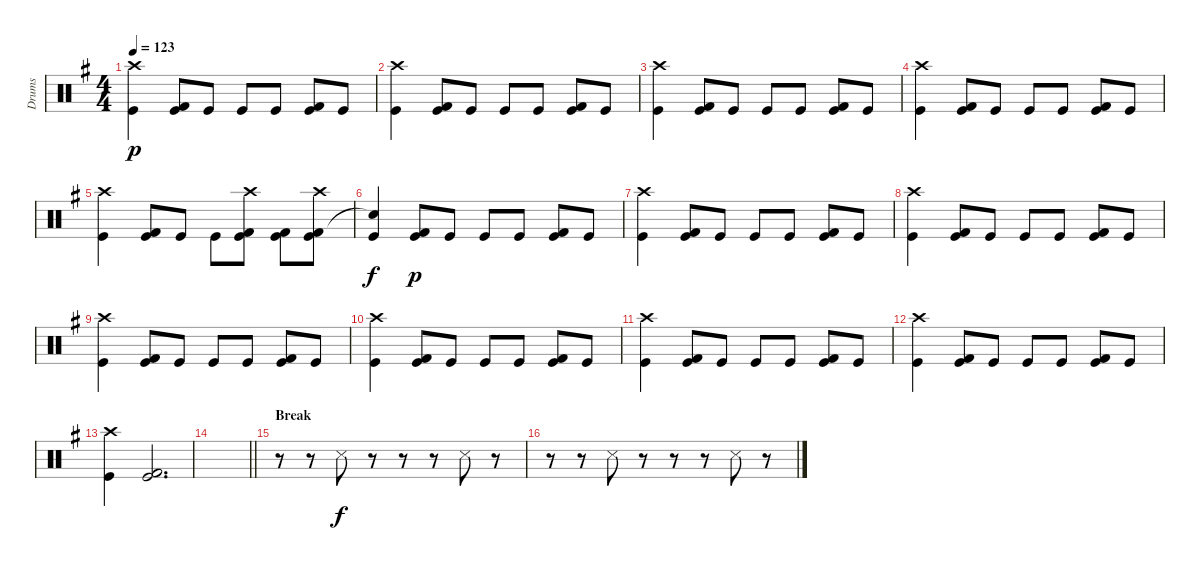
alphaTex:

\track ("Drums" "Drums") {instrument percussion}
\staff {score}
\articulation defaults
\ts (4 4)
\tempo 123
\clef neutral
\ks g
("Crash high (hit)" "Kick (hit)").4{dy p} ("Kick (hit) 2" "Kick (hit)").8 "Kick (hit)".8 "Kick (hit)".8 "Kick (hit)".8 ("Kick (hit) 2" "Kick (hit)").8 "Kick (hit)".8 |
("Crash high (hit)" "Kick (hit)").4 ("Kick (hit) 2" "Kick (hit)").8 "Kick (hit)".8 "Kick (hit)".8 "Kick (hit)".8 ("Kick (hit) 2" "Kick (hit)").8 "Kick (hit)".8 |
("Crash high (hit)" "Kick (hit)").4 ("Kick (hit) 2" "Kick (hit)").8 "Kick (hit)".8 "Kick (hit)".8 "Kick (hit)".8 ("Kick (hit) 2" "Kick (hit)").8 "Kick (hit)".8 |
("Crash high (hit)" "Kick (hit)").4 ("Kick (hit) 2" "Kick (hit)").8 "Kick (hit)".8 "Kick (hit)".8 "Kick (hit)".8 ("Kick (hit) 2" "Kick (hit)").8 "Kick (hit)".8 |
("Crash high (hit)" "Kick (hit)").4 ("Kick (hit) 2" "Kick (hit)").8 "Kick (hit)".8 "Kick (hit)".8 ("Kick (hit) 2" "Crash high (hit)" "Kick (hit)").8 ("Kick (hit) 2" "Kick (hit)").8 ("Kick (hit) 2" "Crash high (hit)" "Kick (hit)").8 |
("Snare (hit)"{t} "Kick (hit)").4{dy f} ("Kick (hit) 2" "Kick (hit)").8{dy p} "Kick (hit)".8 "Kick (hit)".8 "Kick (hit)".8 ("Kick (hit) 2" "Kick (hit)").8 "Kick (hit)".8 |
("Crash high (hit)" "Kick (hit)").4 ("Kick (hit) 2" "Kick (hit)").8 "Kick (hit)".8 "Kick (hit)".8 "Kick (hit)".8 ("Kick (hit) 2" "Kick (hit)").8 "Kick (hit)".8 |
("Crash high (hit)" "Kick (hit)").4 ("Kick (hit) 2" "Kick (hit)").8 "Kick (hit)".8 "Kick (hit)".8 "Kick (hit)".8 ("Kick (hit) 2" "Kick (hit)").8 "Kick (hit)".8 |
("Crash high (hit)" "Kick (hit)").4 ("Kick (hit) 2" "Kick (hit)").8 "Kick (hit)".8 "Kick (hit)".8 "Kick (hit)".8 ("Kick (hit) 2" "Kick (hit)").8 "Kick (hit)".8 |
("Crash high (hit)" "Kick (hit)").4 ("Kick (hit) 2" "Kick (hit)").8 "Kick (hit)".8 "Kick (hit)".8 "Kick (hit)".8 ("Kick (hit) 2" "Kick (hit)").8 "Kick (hit)".8 |
("Crash high (hit)" "Kick (hit)").4 ("Kick (hit) 2" "Kick (hit)").8 "Kick (hit)".8 "Kick (hit)".8 "Kick (hit)".8 ("Kick (hit) 2" "Kick (hit)").8 "Kick (hit)".8 |
("Crash high (hit)" "Kick (hit)").4 ("Kick (hit) 2" "Kick (hit)").8 "Kick (hit)".8 "Kick (hit)".8 "Kick (hit)".8 ("Kick (hit) 2" "Kick (hit)").8 "Kick (hit)".8 |
("Crash high (hit)" "Kick (hit)").4 ("Kick (hit) 2" "Kick (hit)").2{d} |
\barLineRight lightlight
|
\section ("" "Break")
r.8 r.8 "Snare (side stick) 3".8{dy f} r.8 r.8 r.8 "Snare (side stick) 3".8 r.8 |
r.8 r.8 "Snare (side stick) 3".8 r.8 r.8 r.8 "Snare (side stick) 3".8 r.8
